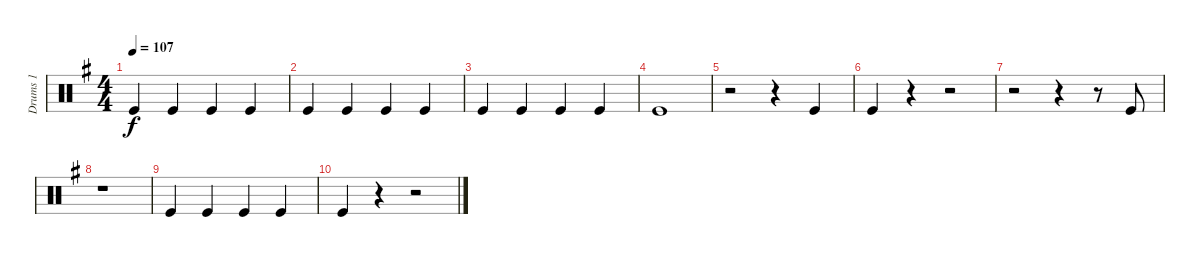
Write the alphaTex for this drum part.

\track ("Drums 1" "Drums 1") {instrument percussion}
\staff {score}
\articulation defaults
\ts (4 4)
\tempo 107
\clef neutral
\ks g "Kick (hit)".4{dy f} "Kick (hit)".4 "Kick (hit)".4 "Kick (hit)".4
|
"Kick (hit)".4 "Kick (hit)".4 "Kick (hit)".4 "Kick (hit)".4 |
"Kick (hit)".4 "Kick (hit)".4 "Kick (hit)".4 "Kick (hit)".4 |
"Kick (hit)".1 |
r.2 r.4 "Kick (hit)".4 |
"Kick (hit)".4 r.4 r.2 |
r.2 r.4 r.8 "Kick (hit)".8 |
r.1 |
"Kick (hit)".4 "Kick (hit)".4 "Kick (hit)".4 "Kick (hit)".4 |
"Kick (hit)".4 r.4 r.2
